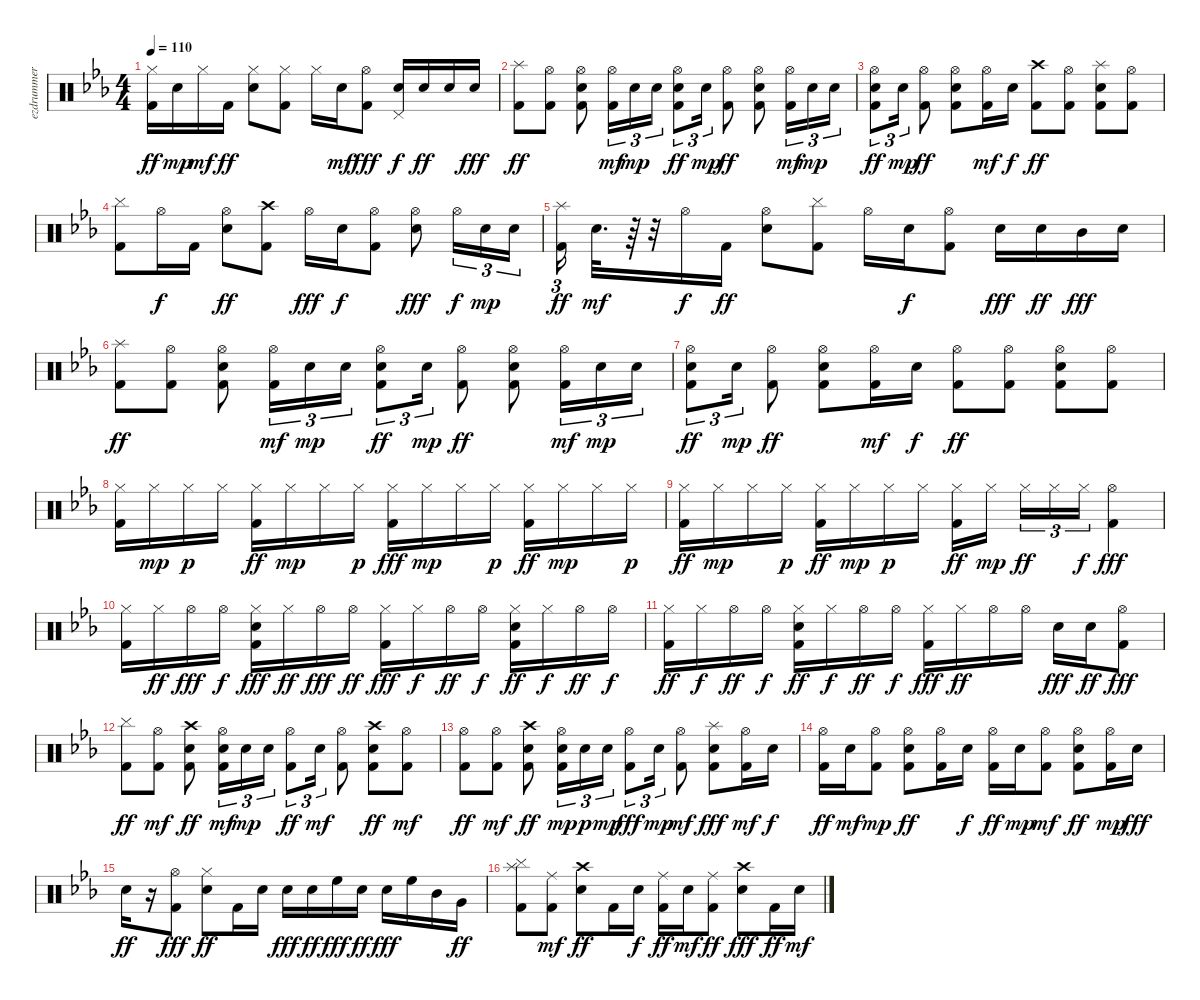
\track ("ezdrummer 03" "ezdrummer ") {instrument percussion}
\staff {score}
\articulation defaults
\ts (4 4)
\tempo 110
\clef neutral
\ks cminor
("Kick (hit) 2" "Hi-Hat (closed)").16{dy ff} "Snare (hit) 2".16{dy mp} "Hi-Hat (closed)".16{dy mf} "Kick (hit) 2".16{dy ff} ("Snare (hit) 2" "Hi-Hat (closed)").8 ("Kick (hit) 2" "Hi-Hat (closed)").8 "Hi-Hat (closed)".16 "Snare (hit) 2".16{dy mf} ("Kick (hit) 2" "Hi-Hat (open)").8{dy fff} ("Snare (hit) 2" "Pedal Hi-Hat (hit)").16{dy f} "Snare (hit) 2".16{dy ff} "Snare (hit) 2".16 "Snare (hit) 2".16{dy fff} |
("Kick (hit) 2" "Splash (hit)").8{dy ff} ("Kick (hit) 2" "Hi-Hat (open)").8 ("Kick (hit) 2" "Snare (hit) 2" "Hi-Hat (open)").8 ("Kick (hit) 2" "Hi-Hat (open)").16{tu (3 2) dy mf} "Snare (hit) 2".16{tu (3 2) dy mp} "Snare (hit) 2".16{tu (3 2)} ("Kick (hit) 2" "Snare (hit) 2" "Hi-Hat (open)").8{tu (3 2) dy ff} "Snare (hit) 2".16{tu (3 2) dy mp} ("Kick (hit) 2" "Hi-Hat (open)").8{dy ff} ("Kick (hit) 2" "Snare (hit) 2" "Hi-Hat (open)").8 ("Kick (hit) 2" "Hi-Hat (open)").16{tu (3 2) dy mf} "Snare (hit) 2".16{tu (3 2) dy mp} "Snare (hit) 2".16{tu (3 2)} |
("Kick (hit) 2" "Snare (hit) 2" "Hi-Hat (open)").8{tu (3 2) dy ff} "Snare (hit) 2".16{tu (3 2) dy mp} ("Kick (hit) 2" "Hi-Hat (open)").8{dy ff} ("Kick (hit) 2" "Snare (hit) 2" "Hi-Hat (open)").8 ("Kick (hit) 2" "Hi-Hat (open)").16{dy mf} "Snare (hit) 2".16{dy f} ("Kick (hit) 2" "Crash high (hit)").8{dy ff} ("Kick (hit) 2" "Hi-Hat (open)").8 ("Kick (hit) 2" "Snare (hit) 2" "Splash (hit)").8 ("Kick (hit) 2" "Hi-Hat (open)").8 |
("Cymbal (hit)" "Kick (hit) 2").8 "Hi-Hat (open)".16{dy f} "Kick (hit) 2".16 ("Snare (hit) 2" "Hi-Hat (open)").8{dy ff} ("Kick (hit) 2" "Crash high (hit)").8 "Hi-Hat (open)".16{dy fff} "Snare (hit) 2".16{dy f} ("Kick (hit) 2" "Hi-Hat (open)").8 ("Snare (hit) 2" "Hi-Hat (open)").8{dy fff} "Hi-Hat (open)".16{tu (3 2) dy f} "Snare (hit) 2".16{tu (3 2) dy mp} "Snare (hit) 2".16{tu (3 2)} |
("Kick (hit) 2" "Splash (hit)").16{tu (3 2) dy ff} "Snare (hit) 2".32{d dy mf} r.64 r.32 "Hi-Hat (open)".16{dy f} "Kick (hit) 2".16{dy ff} ("Snare (hit) 2" "Hi-Hat (open)").8 ("Cymbal (hit)" "Kick (hit) 2").8 "Hi-Hat (open)".16 "Snare (hit) 2".16{dy f} ("Kick (hit) 2" "Hi-Hat (open)").8 "Snare (hit) 2".16{dy fff} "Snare (hit) 2".16{dy ff} "Mid Tom (hit)".16{dy fff} "Snare (hit) 2".16 |
("Kick (hit) 2" "Splash (hit)").8{dy ff} ("Kick (hit) 2" "Hi-Hat (open)").8 ("Kick (hit) 2" "Snare (hit) 2" "Hi-Hat (open)").8 ("Kick (hit) 2" "Hi-Hat (open)").16{tu (3 2) dy mf} "Snare (hit) 2".16{tu (3 2) dy mp} "Snare (hit) 2".16{tu (3 2)} ("Kick (hit) 2" "Snare (hit) 2" "Hi-Hat (open)").8{tu (3 2) dy ff} "Snare (hit) 2".16{tu (3 2) dy mp} ("Kick (hit) 2" "Hi-Hat (open)").8{dy ff} ("Kick (hit) 2" "Snare (hit) 2" "Hi-Hat (open)").8 ("Kick (hit) 2" "Hi-Hat (open)").16{tu (3 2) dy mf} "Snare (hit) 2".16{tu (3 2) dy mp} "Snare (hit) 2".16{tu (3 2)} |
("Kick (hit) 2" "Snare (hit) 2" "Hi-Hat (open)").8{tu (3 2) dy ff} "Snare (hit) 2".16{tu (3 2) dy mp} ("Kick (hit) 2" "Hi-Hat (open)").8{dy ff} ("Kick (hit) 2" "Snare (hit) 2" "Hi-Hat (open)").8 ("Kick (hit) 2" "Hi-Hat (open)").16{dy mf} "Snare (hit) 2".16{dy f} ("Kick (hit) 2" "Hi-Hat (open)").8{dy ff} ("Kick (hit) 2" "Hi-Hat (open)").8 ("Kick (hit) 2" "Snare (hit) 2" "Hi-Hat (open)").8 ("Kick (hit) 2" "Hi-Hat (open)").8 |
("Kick (hit) 2" "Hi-Hat (closed)").16 "Hi-Hat (closed)".16{dy mp} "Hi-Hat (closed)".16{dy p} "Hi-Hat (closed)".16 ("Kick (hit) 2" "Hi-Hat (closed)").16{dy ff} "Hi-Hat (closed)".16{dy mp} "Hi-Hat (closed)".16 "Hi-Hat (closed)".16{dy p} ("Kick (hit) 2" "Hi-Hat (closed)").16{dy fff} "Hi-Hat (closed)".16{dy mp} "Hi-Hat (closed)".16 "Hi-Hat (closed)".16{dy p} ("Kick (hit) 2" "Hi-Hat (closed)").16{dy ff} "Hi-Hat (closed)".16{dy mp} "Hi-Hat (closed)".16 "Hi-Hat (closed)".16{dy p} |
("Kick (hit) 2" "Hi-Hat (closed)").16{dy ff} "Hi-Hat (closed)".16{dy mp} "Hi-Hat (closed)".16 "Hi-Hat (closed)".16{dy p} ("Kick (hit) 2" "Hi-Hat (closed)").16{dy ff} "Hi-Hat (closed)".16{dy mp} "Hi-Hat (closed)".16{dy p} "Hi-Hat (closed)".16 ("Kick (hit) 2" "Hi-Hat (closed)").16{dy ff} "Hi-Hat (closed)".16{dy mp} "Hi-Hat (closed)".16{tu (3 2) dy ff} "Hi-Hat (closed)".16{tu (3 2)} "Hi-Hat (closed)".16{tu (3 2) dy f} ("Kick (hit) 2" "Hi-Hat (open)").4{dy fff} |
("Kick (hit) 2" "Hi-Hat (closed)").16 "Hi-Hat (closed)".16{dy ff} "Hi-Hat (open)".16{dy fff} "Hi-Hat (open)".16{dy f} ("Kick (hit) 2" "Snare (hit) 2" "Hi-Hat (closed)").16{dy fff} "Hi-Hat (closed)".16{dy ff} "Hi-Hat (open)".16{dy fff} "Hi-Hat (open)".16{dy ff} ("Kick (hit) 2" "Hi-Hat (closed)").16{dy fff} "Hi-Hat (closed)".16{dy f} "Hi-Hat (open)".16{dy ff} "Hi-Hat (open)".16{dy f} ("Kick (hit) 2" "Snare (hit) 2" "Hi-Hat (closed)").16{dy ff} "Hi-Hat (closed)".16{dy f} "Hi-Hat (open)".16{dy ff} "Hi-Hat (open)".16{dy f} |
("Kick (hit) 2" "Hi-Hat (closed)").16{dy ff} "Hi-Hat (closed)".16{dy f} "Hi-Hat (open)".16{dy ff} "Hi-Hat (open)".16{dy f} ("Kick (hit) 2" "Snare (hit) 2" "Hi-Hat (closed)").16{dy ff} "Hi-Hat (closed)".16{dy f} "Hi-Hat (open)".16{dy ff} "Hi-Hat (open)".16{dy f} ("Kick (hit) 2" "Hi-Hat (closed)").16{dy fff} "Hi-Hat (closed)".16{dy ff} "Hi-Hat (open)".16 "Hi-Hat (open)".16 "Snare (hit) 2".16{dy fff} "Snare (hit) 2".16{dy ff} ("Kick (hit) 2" "Hi-Hat (open)").8{dy fff} |
("Cymbal (hit)" "Kick (hit) 2").8{dy ff} ("Kick (hit) 2" "Hi-Hat (open)").8{dy mf} ("Kick (hit) 2" "Snare (hit) 2" "Crash high (hit)").8{dy ff} ("Kick (hit) 2" "Snare (hit) 2" "Hi-Hat (open)").16{tu (3 2) dy mf} "Snare (hit) 2".16{tu (3 2) dy mp} "Snare (hit) 2".16{tu (3 2)} ("Kick (hit) 2" "Hi-Hat (open)").8{tu (3 2) dy ff} "Snare (hit) 2".16{tu (3 2) dy mf} ("Kick (hit) 2" "Hi-Hat (open)").8 ("Kick (hit) 2" "Snare (hit) 2" "Crash high (hit)").8{dy ff} ("Kick (hit) 2" "Hi-Hat (open)").8{dy mf} |
("Kick (hit) 2" "Hi-Hat (open)").8{dy ff} ("Kick (hit) 2" "Hi-Hat (open)").8{dy mf} ("Kick (hit) 2" "Snare (hit) 2" "Crash high (hit)").8{dy ff} ("Kick (hit) 2" "Snare (hit) 2" "Hi-Hat (open)").16{tu (3 2) dy mp} "Snare (hit) 2".16{tu (3 2) dy p} "Snare (hit) 2".16{tu (3 2) dy mp} ("Kick (hit) 2" "Hi-Hat (open)").8{tu (3 2) dy fff} "Snare (hit) 2".16{tu (3 2) dy mp} ("Kick (hit) 2" "Hi-Hat (open)").8{dy mf} ("Kick (hit) 2" "Snare (hit) 2" "Splash (hit)").8{dy fff} ("Kick (hit) 2" "Hi-Hat (open)").16{dy mf} "Snare (hit) 2".16{dy f} |
("Kick (hit) 2" "Hi-Hat (open)").16{dy ff} "Snare (hit) 2".16{dy mf} ("Kick (hit) 2" "Hi-Hat (open)").8{dy mp} ("Kick (hit) 2" "Snare (hit) 2" "Hi-Hat (open)").8{dy ff} ("Kick (hit) 2" "Hi-Hat (open)").16 "Snare (hit) 2".16{dy f} ("Kick (hit) 2" "Hi-Hat (open)").16{dy ff} "Snare (hit) 2".16{dy mp} ("Kick (hit) 2" "Hi-Hat (open)").8{dy mf} ("Kick (hit) 2" "Snare (hit) 2" "Hi-Hat (open)").8{dy ff} ("Kick (hit) 2" "Hi-Hat (open)").16{dy mp} "Snare (hit) 2".16{dy fff} |
"Snare (hit) 2".16{dy ff} r.16 ("Kick (hit) 2" "Hi-Hat (open)").8{dy fff} ("Snare (hit) 2" "Hi-Hat (closed)").8{dy ff} "Kick (hit) 2".16 "Snare (hit) 2".16 "Snare (hit) 2".16{dy fff} "Snare (hit) 2".16{dy ff} "High Floor Tom (hit)".16{dy fff} "Snare (hit) 2".16{dy ff} "Snare (hit) 2".16{dy fff} "High Floor Tom (hit)".16 "Mid Tom (hit)".16 "Very Low Tom (hit)".16{dy ff} |
("Cymbal (hit)" "Kick (hit) 2" "Splash (hit)").8 ("Kick (hit) 2" "Ride (middle)").8{dy mf} ("Snare (hit) 2" "Crash high (hit)").8{dy ff} "Kick (hit) 2".16 "Snare (hit) 2".16{dy f} ("Kick (hit) 2" "Ride (middle)").16{dy ff} "Snare (hit) 2".16{dy mf} ("Kick (hit) 2" "Ride (middle)").8{dy ff} ("Snare (hit) 2" "Crash high (hit)").8{dy fff} "Kick (hit) 2".16{dy ff} "Snare (hit) 2".16{dy mf}
